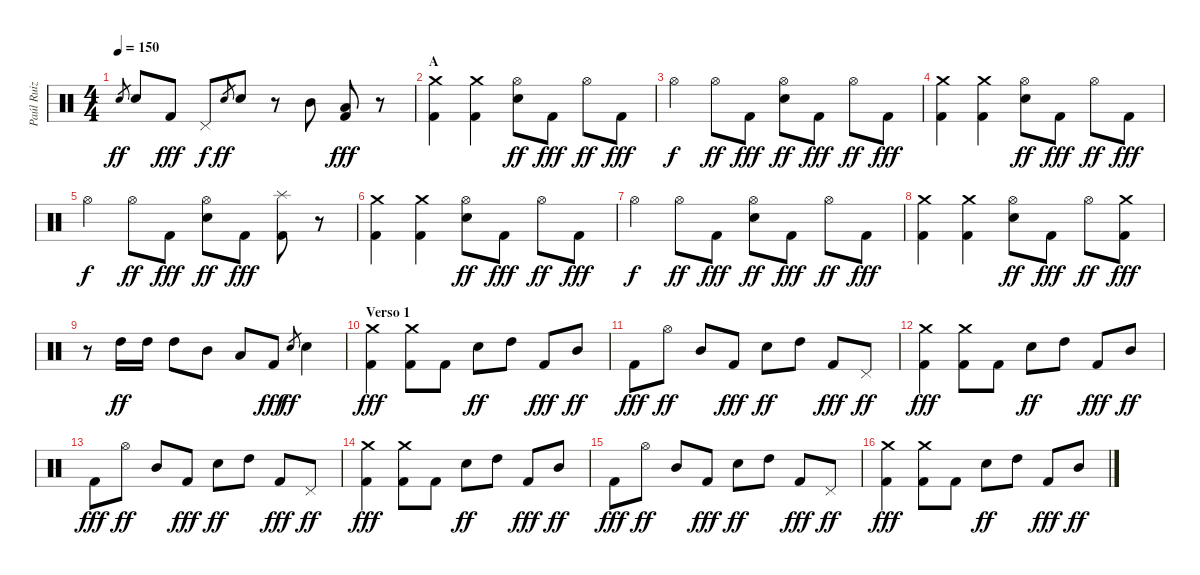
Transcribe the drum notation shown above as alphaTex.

\track ("Paúl Ruiz" "Paúl Ruiz") {instrument percussion}
\staff {score}
\articulation defaults
\ts (4 4)
\tempo 150
\clef neutral
\ks c "Snare (hit) 2".8{gr dy ff} "Snare (hit) 2".8 "Kick (hit) 2".8{dy fff} "Pedal Hi-Hat (hit)".8{dy f} "Snare (hit) 2".8{gr dy ff} "Snare (hit) 2".8
r.8 "Mid Tom (hit)".8 ("Low Tom (hit)" "Kick (hit) 2").8{dy fff} r.8 |
\section ("" "A")
("Crash medium (hit)" "Kick (hit) 2").4 ("Crash medium (hit)" "Kick (hit) 2").4 ("Hi-Hat (open)" "Snare (hit) 2").8{dy ff} "Kick (hit) 2".8{dy fff} "Hi-Hat (open)".8{dy ff} "Kick (hit) 2".8{dy fff} |
"Hi-Hat (open)".4{dy f} "Hi-Hat (open)".8{dy ff} "Kick (hit) 2".8{dy fff} ("Hi-Hat (open)" "Snare (hit) 2").8{dy ff} "Kick (hit) 2".8{dy fff} "Hi-Hat (open)".8{dy ff} "Kick (hit) 2".8{dy fff} |
("Crash medium (hit)" "Kick (hit) 2").4 ("Crash medium (hit)" "Kick (hit) 2").4 ("Hi-Hat (open)" "Snare (hit) 2").8{dy ff} "Kick (hit) 2".8{dy fff} "Hi-Hat (open)".8{dy ff} "Kick (hit) 2".8{dy fff} |
"Hi-Hat (open)".4{dy f} "Hi-Hat (open)".8{dy ff} "Kick (hit) 2".8{dy fff} ("Hi-Hat (open)" "Snare (hit) 2").8{dy ff} "Kick (hit) 2".8{dy fff} ("Splash (hit)" "Kick (hit) 2").8 r.8 |
("Crash medium (hit)" "Kick (hit) 2").4 ("Crash medium (hit)" "Kick (hit) 2").4 ("Hi-Hat (open)" "Snare (hit) 2").8{dy ff} "Kick (hit) 2".8{dy fff} "Hi-Hat (open)".8{dy ff} "Kick (hit) 2".8{dy fff} |
"Hi-Hat (open)".4{dy f} "Hi-Hat (open)".8{dy ff} "Kick (hit) 2".8{dy fff} ("Hi-Hat (open)" "Snare (hit) 2").8{dy ff} "Kick (hit) 2".8{dy fff} "Hi-Hat (open)".8{dy ff} "Kick (hit) 2".8{dy fff} |
("Crash medium (hit)" "Kick (hit) 2").4 ("Crash medium (hit)" "Kick (hit) 2").4 ("Hi-Hat (open)" "Snare (hit) 2").8{dy ff} "Kick (hit) 2".8{dy fff} "Hi-Hat (open)".8{dy ff} ("Crash medium (hit)" "Kick (hit) 2").8{dy fff} |
r.8 "High Tom (hit)".16{dy ff} "High Tom (hit)".16 "High Tom (hit)".8 "Mid Tom (hit)".8 "Low Tom (hit)".8 "Kick (hit) 2".8{dy fff} "Snare (hit) 2".8{gr dy ff} "Snare (hit) 2".4 |
\section ("" "Verso 1")
("Crash medium (hit)" "Kick (hit) 2").4{dy fff} ("Crash medium (hit)" "Kick (hit) 2").8 "Kick (hit) 2".8 "Snare (hit) 2".8{dy ff} "High Tom (hit)".8 "Kick (hit) 2".8{dy fff} "Mid Tom (hit)".8{dy ff} |
"Kick (hit) 2".8{dy fff} "Hi-Hat (open)".8{dy ff} "Mid Tom (hit)".8 "Kick (hit) 2".8{dy fff} "Snare (hit) 2".8{dy ff} "High Tom (hit)".8 "Kick (hit) 2".8{dy fff} "Pedal Hi-Hat (hit)".8{dy ff} |
("Crash medium (hit)" "Kick (hit) 2").4{dy fff} ("Crash medium (hit)" "Kick (hit) 2").8 "Kick (hit) 2".8 "Snare (hit) 2".8{dy ff} "High Tom (hit)".8 "Kick (hit) 2".8{dy fff} "Mid Tom (hit)".8{dy ff} |
"Kick (hit) 2".8{dy fff} "Hi-Hat (open)".8{dy ff} "Mid Tom (hit)".8 "Kick (hit) 2".8{dy fff} "Snare (hit) 2".8{dy ff} "High Tom (hit)".8 "Kick (hit) 2".8{dy fff} "Pedal Hi-Hat (hit)".8{dy ff} |
("Crash medium (hit)" "Kick (hit) 2").4{dy fff} ("Crash medium (hit)" "Kick (hit) 2").8 "Kick (hit) 2".8 "Snare (hit) 2".8{dy ff} "High Tom (hit)".8 "Kick (hit) 2".8{dy fff} "Mid Tom (hit)".8{dy ff} |
"Kick (hit) 2".8{dy fff} "Hi-Hat (open)".8{dy ff} "Mid Tom (hit)".8 "Kick (hit) 2".8{dy fff} "Snare (hit) 2".8{dy ff} "High Tom (hit)".8 "Kick (hit) 2".8{dy fff} "Pedal Hi-Hat (hit)".8{dy ff} |
("Crash medium (hit)" "Kick (hit) 2").4{dy fff} ("Crash medium (hit)" "Kick (hit) 2").8 "Kick (hit) 2".8 "Snare (hit) 2".8{dy ff} "High Tom (hit)".8 "Kick (hit) 2".8{dy fff} "Mid Tom (hit)".8{dy ff}
